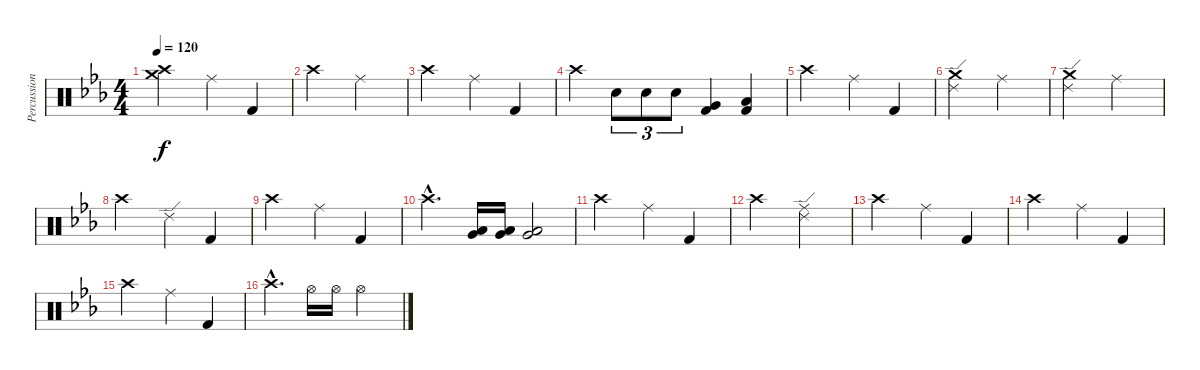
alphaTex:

\track ("Percussion" "Percussion") {instrument percussion}
\staff {score}
\articulation defaults
\ts (4 4)
\tempo 120
\clef neutral
\ks eb
("Crash high (hit)" "Crash medium (hit)").2{dy f} "Ride (middle)".4 "Kick (hit) 2".4 |
"Crash high (hit)".2 "Ride (middle)".2 |
"Crash high (hit)".2 "Ride (middle)".4 "Kick (hit) 2".4 |
"Crash high (hit)".4 "Electric Snare (hit)".8{tu (3 2)} "Electric Snare (hit)".8{tu (3 2)} "Electric Snare (hit)".8{tu (3 2)} ("Very Low Tom (hit)" "Kick (hit) 2").4 ("Low Floor Tom (hit)" "Kick (hit) 2").4 |
"Crash high (hit)".2 "Ride (middle)".4 "Kick (hit) 2".4 |
("Ride (edge) 2" "Crash medium (hit)").2 "Ride (middle)".2 |
("Ride (edge) 2" "Crash medium (hit)").2 "Ride (middle)".2 |
"Crash high (hit)".2 "Ride (edge) 2".4 "Kick (hit) 2".4 |
"Crash high (hit)".2 "Ride (middle)".4 "Kick (hit) 2".4 |
"Crash high (hit)"{hac}.4{d} ("Very Low Tom (hit)" "Low Floor Tom (hit)").16 ("Very Low Tom (hit)" "Low Floor Tom (hit)").16 ("Very Low Tom (hit)" "Low Floor Tom (hit)").2 |
"Crash high (hit)".2 "Ride (middle)".4 "Kick (hit) 2".4 |
"Crash high (hit)".2 ("Ride (middle)" "Ride (edge) 2").2 |
"Crash high (hit)".2 "Ride (middle)".4 "Kick (hit) 2".4 |
"Crash high (hit)".2 "Ride (middle)".4 "Kick (hit) 2".4 |
"Crash high (hit)".2 "Ride (middle)".4 "Kick (hit) 2".4 |
"Crash high (hit)"{hac}.4{d} "Hi-Hat (open)".16 "Hi-Hat (open)".16 "Hi-Hat (open)".2
